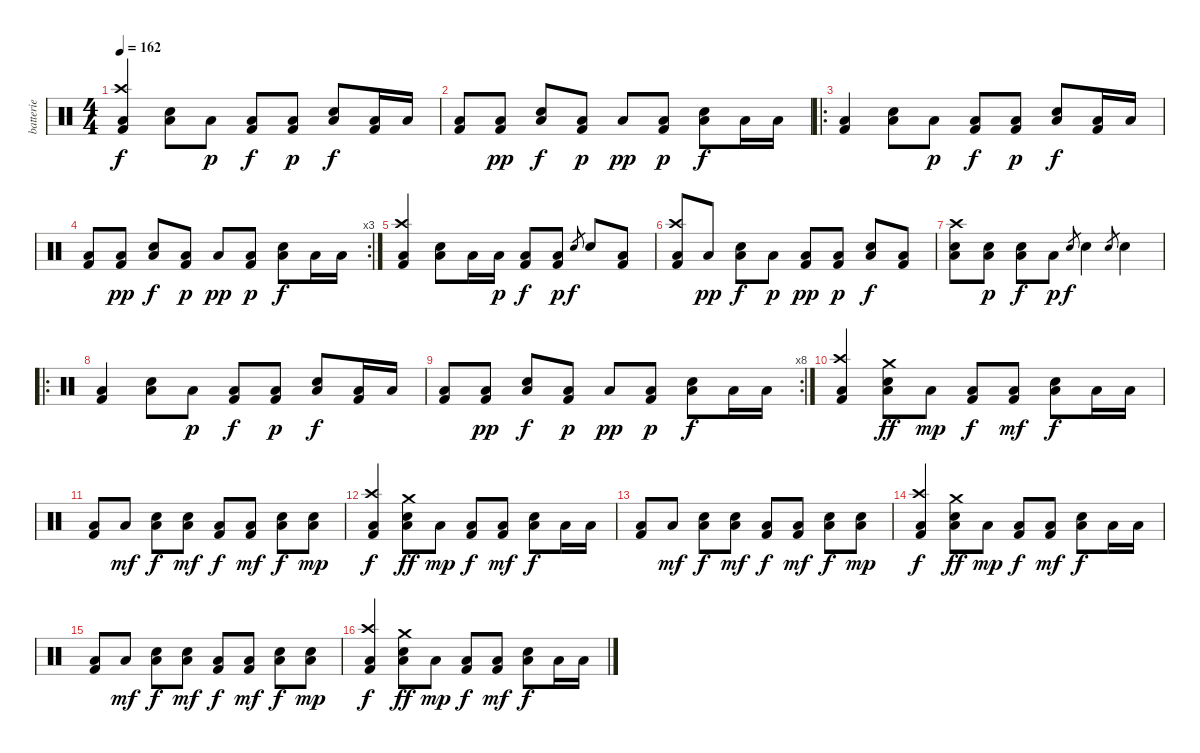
\track ("batterie" "batterie") {instrument percussion}
\staff {score}
\articulation defaults
\ts (4 4)
\tempo 162
\clef neutral
\ks c
("Low Floor Tom (hit)" "Crash high (hit)" "Kick (hit) 2").4{dy f} ("Low Floor Tom (hit)" "Electric Snare (hit)").8 "Low Floor Tom (hit)".8{dy p} ("Low Floor Tom (hit)" "Kick (hit) 2").8{dy f} ("Low Floor Tom (hit)" "Kick (hit) 2").8{dy p} ("Low Floor Tom (hit)" "Electric Snare (hit)").8{dy f} ("Low Floor Tom (hit)" "Kick (hit) 2").16 "Low Floor Tom (hit)".16 |
("Low Floor Tom (hit)" "Kick (hit) 2").8 ("Low Floor Tom (hit)" "Kick (hit) 2").8{dy pp} ("Low Floor Tom (hit)" "Electric Snare (hit)").8{dy f} ("Low Floor Tom (hit)" "Kick (hit) 2").8{dy p} "Low Floor Tom (hit)".8{dy pp} ("Low Floor Tom (hit)" "Kick (hit) 2").8{dy p} ("Low Floor Tom (hit)" "Electric Snare (hit)").8{dy f} "Low Floor Tom (hit)".16 "Low Floor Tom (hit)".16 |
\ro
("Low Floor Tom (hit)" "Kick (hit) 2").4 ("Low Floor Tom (hit)" "Electric Snare (hit)").8 "Low Floor Tom (hit)".8{dy p} ("Low Floor Tom (hit)" "Kick (hit) 2").8{dy f} ("Low Floor Tom (hit)" "Kick (hit) 2").8{dy p} ("Low Floor Tom (hit)" "Electric Snare (hit)").8{dy f} ("Low Floor Tom (hit)" "Kick (hit) 2").16 "Low Floor Tom (hit)".16 |
\rc 3
("Low Floor Tom (hit)" "Kick (hit) 2").8 ("Low Floor Tom (hit)" "Kick (hit) 2").8{dy pp} ("Low Floor Tom (hit)" "Electric Snare (hit)").8{dy f} ("Low Floor Tom (hit)" "Kick (hit) 2").8{dy p} "Low Floor Tom (hit)".8{dy pp} ("Low Floor Tom (hit)" "Kick (hit) 2").8{dy p} ("Low Floor Tom (hit)" "Electric Snare (hit)").8{dy f} "Low Floor Tom (hit)".16 "Low Floor Tom (hit)".16 |
("Low Floor Tom (hit)" "Crash high (hit)" "Kick (hit) 2").4 ("Low Floor Tom (hit)" "Electric Snare (hit)").8 "Low Floor Tom (hit)".16 "Low Floor Tom (hit)".16{dy p} ("Low Floor Tom (hit)" "Kick (hit) 2").8{dy f} ("Low Floor Tom (hit)" "Kick (hit) 2").8{dy p} "Electric Snare (hit)".8{gr dy f} "Electric Snare (hit)".8 ("Low Floor Tom (hit)" "Kick (hit) 2").8 |
("Low Floor Tom (hit)" "Crash high (hit)" "Kick (hit) 2").8 "Low Floor Tom (hit)".8{dy pp} ("Low Floor Tom (hit)" "Electric Snare (hit)").8{dy f} "Low Floor Tom (hit)".8{dy p} ("Low Floor Tom (hit)" "Kick (hit) 2").8{dy pp} ("Low Floor Tom (hit)" "Kick (hit) 2").8{dy p} ("Low Floor Tom (hit)" "Electric Snare (hit)").8{dy f} ("Low Floor Tom (hit)" "Kick (hit) 2").8 |
("Low Floor Tom (hit)" "Crash high (hit)" "Electric Snare (hit)").8 ("Low Floor Tom (hit)" "Electric Snare (hit)").8{dy p} ("Low Floor Tom (hit)" "Electric Snare (hit)").8{dy f} "Low Floor Tom (hit)".8{dy p} "Electric Snare (hit)".8{gr dy f} "Electric Snare (hit)".4 "Electric Snare (hit)".8{gr} "Electric Snare (hit)".4 |
\ro
("Low Floor Tom (hit)" "Kick (hit) 2").4 ("Low Floor Tom (hit)" "Electric Snare (hit)").8 "Low Floor Tom (hit)".8{dy p} ("Low Floor Tom (hit)" "Kick (hit) 2").8{dy f} ("Low Floor Tom (hit)" "Kick (hit) 2").8{dy p} ("Low Floor Tom (hit)" "Electric Snare (hit)").8{dy f} ("Low Floor Tom (hit)" "Kick (hit) 2").16 "Low Floor Tom (hit)".16 |
\rc 8
("Low Floor Tom (hit)" "Kick (hit) 2").8 ("Low Floor Tom (hit)" "Kick (hit) 2").8{dy pp} ("Low Floor Tom (hit)" "Electric Snare (hit)").8{dy f} ("Low Floor Tom (hit)" "Kick (hit) 2").8{dy p} "Low Floor Tom (hit)".8{dy pp} ("Low Floor Tom (hit)" "Kick (hit) 2").8{dy p} ("Low Floor Tom (hit)" "Electric Snare (hit)").8{dy f} "Low Floor Tom (hit)".16 "Low Floor Tom (hit)".16 |
("Low Floor Tom (hit)" "Crash high (hit)" "Kick (hit) 2").4 ("Low Floor Tom (hit)" "Crash medium (hit)" "Electric Snare (hit)").8{dy ff} "Low Floor Tom (hit)".8{dy mp} ("Low Floor Tom (hit)" "Kick (hit) 2").8{dy f} ("Low Floor Tom (hit)" "Kick (hit) 2").8{dy mf} ("Low Floor Tom (hit)" "Electric Snare (hit)").8{dy f} "Low Floor Tom (hit)".16 "Low Floor Tom (hit)".16 |
("Low Floor Tom (hit)" "Kick (hit) 2").8 "Low Floor Tom (hit)".8{dy mf} ("Low Floor Tom (hit)" "Electric Snare (hit)").8{dy f} ("Low Floor Tom (hit)" "Electric Snare (hit)").8{dy mf} ("Low Floor Tom (hit)" "Kick (hit) 2").8{dy f} ("Low Floor Tom (hit)" "Kick (hit) 2").8{dy mf} ("Low Floor Tom (hit)" "Electric Snare (hit)").8{dy f} ("Low Floor Tom (hit)" "Electric Snare (hit)").8{dy mp} |
("Low Floor Tom (hit)" "Crash high (hit)" "Kick (hit) 2").4{dy f} ("Low Floor Tom (hit)" "Crash medium (hit)" "Electric Snare (hit)").8{dy ff} "Low Floor Tom (hit)".8{dy mp} ("Low Floor Tom (hit)" "Kick (hit) 2").8{dy f} ("Low Floor Tom (hit)" "Kick (hit) 2").8{dy mf} ("Low Floor Tom (hit)" "Electric Snare (hit)").8{dy f} "Low Floor Tom (hit)".16 "Low Floor Tom (hit)".16 |
("Low Floor Tom (hit)" "Kick (hit) 2").8 "Low Floor Tom (hit)".8{dy mf} ("Low Floor Tom (hit)" "Electric Snare (hit)").8{dy f} ("Low Floor Tom (hit)" "Electric Snare (hit)").8{dy mf} ("Low Floor Tom (hit)" "Kick (hit) 2").8{dy f} ("Low Floor Tom (hit)" "Kick (hit) 2").8{dy mf} ("Low Floor Tom (hit)" "Electric Snare (hit)").8{dy f} ("Low Floor Tom (hit)" "Electric Snare (hit)").8{dy mp} |
("Low Floor Tom (hit)" "Crash high (hit)" "Kick (hit) 2").4{dy f} ("Low Floor Tom (hit)" "Crash medium (hit)" "Electric Snare (hit)").8{dy ff} "Low Floor Tom (hit)".8{dy mp} ("Low Floor Tom (hit)" "Kick (hit) 2").8{dy f} ("Low Floor Tom (hit)" "Kick (hit) 2").8{dy mf} ("Low Floor Tom (hit)" "Electric Snare (hit)").8{dy f} "Low Floor Tom (hit)".16 "Low Floor Tom (hit)".16 |
("Low Floor Tom (hit)" "Kick (hit) 2").8 "Low Floor Tom (hit)".8{dy mf} ("Low Floor Tom (hit)" "Electric Snare (hit)").8{dy f} ("Low Floor Tom (hit)" "Electric Snare (hit)").8{dy mf} ("Low Floor Tom (hit)" "Kick (hit) 2").8{dy f} ("Low Floor Tom (hit)" "Kick (hit) 2").8{dy mf} ("Low Floor Tom (hit)" "Electric Snare (hit)").8{dy f} ("Low Floor Tom (hit)" "Electric Snare (hit)").8{dy mp} |
("Low Floor Tom (hit)" "Crash high (hit)" "Kick (hit) 2").4{dy f} ("Low Floor Tom (hit)" "Crash medium (hit)" "Electric Snare (hit)").8{dy ff} "Low Floor Tom (hit)".8{dy mp} ("Low Floor Tom (hit)" "Kick (hit) 2").8{dy f} ("Low Floor Tom (hit)" "Kick (hit) 2").8{dy mf} ("Low Floor Tom (hit)" "Electric Snare (hit)").8{dy f} "Low Floor Tom (hit)".16 "Low Floor Tom (hit)".16
